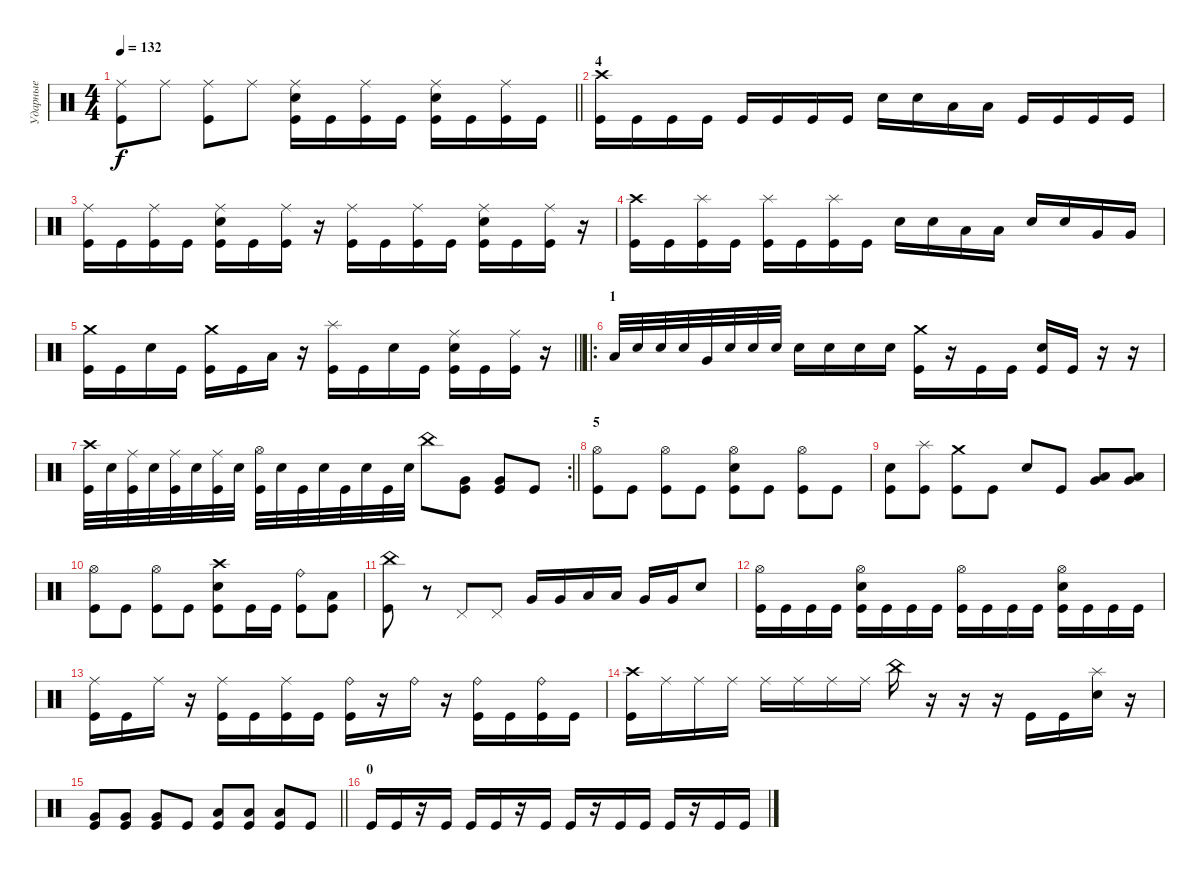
\track ("Ударные" "Ударные") {instrument percussion}
\staff {score}
\articulation defaults
\ts (4 4)
\tempo 132
\clef neutral
\barLineRight lightlight
\ks c
("Ride (middle)" "Kick (hit)").8{dy f} "Ride (middle)".8 ("Ride (middle)" "Kick (hit)").8 "Ride (middle)".8 ("Ride (middle)" "Electric Snare (hit)" "Kick (hit)").16 "Kick (hit)".16 ("Ride (middle)" "Kick (hit)").16 "Kick (hit)".16 ("Ride (middle)" "Electric Snare (hit)" "Kick (hit)").16 "Kick (hit)".16 ("Ride (middle)" "Kick (hit)").16 "Kick (hit)".16 |
\section ("" "4")
("Crash high (hit)" "Kick (hit)").16 "Kick (hit)".16 "Kick (hit)".16 "Kick (hit)".16 "Kick (hit)".16 "Kick (hit)".16 "Kick (hit)".16 "Kick (hit)".16 "Electric Snare (hit)".16 "Electric Snare (hit)".16 "Low Tom (hit)".16 "Low Tom (hit)".16 "Kick (hit)".16 "Kick (hit)".16 "Kick (hit)".16 "Kick (hit)".16 |
("Ride (middle)" "Kick (hit)").16 "Kick (hit)".16 ("Ride (middle)" "Kick (hit)").16 "Kick (hit)".16 ("Ride (middle)" "Electric Snare (hit)" "Kick (hit)").16 "Kick (hit)".16 ("Ride (middle)" "Kick (hit)").16 r.16 ("Ride (middle)" "Kick (hit)").16 "Kick (hit)".16 ("Ride (middle)" "Kick (hit)").16 "Kick (hit)".16 ("Ride (middle)" "Electric Snare (hit)" "Kick (hit)").16 "Kick (hit)".16 ("Ride (middle)" "Kick (hit)").16 r.16 |
("Crash high (hit)" "Kick (hit)").16 "Kick (hit)".16 ("Splash (hit)" "Kick (hit)").16 "Kick (hit)".16 ("Splash (hit)" "Kick (hit)").16 "Kick (hit)".16 ("Splash (hit)" "Kick (hit)").16 "Kick (hit)".16 "Electric Snare (hit)".16 "Electric Snare (hit)".16 "Low Tom (hit)".16 "Low Tom (hit)".16 "Electric Snare (hit)".16 "Electric Snare (hit)".16 "Very Low Tom (hit)".16 "Very Low Tom (hit)".16 |
\barLineRight lightlight
("Crash medium (hit)" "Kick (hit)").16 "Kick (hit)".16 "Electric Snare (hit)".16 "Kick (hit)".16 ("Crash medium (hit)" "Kick (hit)").16 "Kick (hit)".16 "Low Tom (hit)".16 r.16 ("Splash (hit)" "Kick (hit)").16 "Kick (hit)".16 "Electric Snare (hit)".16 "Kick (hit)".16 ("Ride (middle)" "Electric Snare (hit)" "Kick (hit)").16 "Kick (hit)".16 ("Ride (middle)" "Kick (hit)").16 r.16 |
\ro
\section ("" "1")
"Low Tom (hit)".32 "Electric Snare (hit)".32 "Electric Snare (hit)".32 "Electric Snare (hit)".32 "Very Low Tom (hit)".32 "Electric Snare (hit)".32 "Electric Snare (hit)".32 "Electric Snare (hit)".32 "Electric Snare (hit)".16 "Electric Snare (hit)".16 "Electric Snare (hit)".16 "Electric Snare (hit)".16 ("Crash medium (hit)" "Kick (hit)").16 r.16 "Kick (hit)".16 "Kick (hit)".16 ("Electric Snare (hit)" "Kick (hit)").16 "Kick (hit)".16 r.16 r.16 |
\rc 2
\barLineRight lightlight
("Crash high (hit)" "Kick (hit)").32 "Electric Snare (hit)".32 ("Ride (middle)" "Kick (hit)").32 "Electric Snare (hit)".32 ("Ride (middle)" "Kick (hit)").32 "Electric Snare (hit)".32 ("Ride (middle)" "Kick (hit)").32 "Electric Snare (hit)".32 ("Hi-Hat (open)" "Kick (hit)").32 "Electric Snare (hit)".32 "Kick (hit)".32 "Electric Snare (hit)".32 "Kick (hit)".32 "Electric Snare (hit)".32 "Kick (hit)".32 "Electric Snare (hit)".32 "China (hit)".8 ("Very Low Tom (hit)" "Kick (hit)").8 ("Very Low Tom (hit)" "Kick (hit)").8 "Kick (hit)".8 |
\section ("" "5")
("Hi-Hat (open)" "Kick (hit)").8 "Kick (hit)".8 ("Hi-Hat (open)" "Kick (hit)").8 "Kick (hit)".8 ("Hi-Hat (open)" "Electric Snare (hit)" "Kick (hit)").8 "Kick (hit)".8 ("Hi-Hat (open)" "Kick (hit)").8 "Kick (hit)".8 |
("Electric Snare (hit)" "Kick (hit)").8 ("Splash (hit)" "Kick (hit)").8 ("Crash medium (hit)" "Kick (hit)").8 "Kick (hit)".8 "Electric Snare (hit)".8 "Kick (hit)".8 ("Very Low Tom (hit)" "Low Floor Tom (hit)").8 ("Very Low Tom (hit)" "Low Floor Tom (hit)").8 |
("Hi-Hat (open)" "Kick (hit)").8 "Kick (hit)".8 ("Hi-Hat (open)" "Kick (hit)").8 "Kick (hit)".8 ("Crash high (hit)" "Electric Snare (hit)" "Kick (hit)").8 "Kick (hit)".16 "Kick (hit)".16 ("Ride (bell)" "Kick (hit)").8 ("Low Tom (hit)" "Kick (hit)").8 |
("China (hit)" "Kick (hit)").8 r.8 "Pedal Hi-Hat (hit)".8 "Pedal Hi-Hat (hit)".8 "Very Low Tom (hit)".16 "Very Low Tom (hit)".16 "Low Tom (hit)".16 "Low Tom (hit)".16 "Very Low Tom (hit)".16 "Very Low Tom (hit)".16 "Electric Snare (hit)".8 |
("Hi-Hat (open)" "Kick (hit)").16 "Kick (hit)".16 "Kick (hit)".16 "Kick (hit)".16 ("Hi-Hat (open)" "Electric Snare (hit)" "Kick (hit)").16 "Kick (hit)".16 "Kick (hit)".16 "Kick (hit)".16 ("Hi-Hat (open)" "Kick (hit)").16 "Kick (hit)".16 "Kick (hit)".16 "Kick (hit)".16 ("Hi-Hat (open)" "Electric Snare (hit)" "Kick (hit)").16 "Kick (hit)".16 "Kick (hit)".16 "Kick (hit)".16 |
("Ride (middle)" "Kick (hit)").16 "Kick (hit)".16 "Ride (middle)".16 r.16 ("Ride (middle)" "Kick (hit)").16 "Kick (hit)".16 ("Ride (middle)" "Kick (hit)").16 "Kick (hit)".16 ("Ride (bell)" "Kick (hit)").16 r.16 "Ride (bell)".16 r.16 ("Ride (bell)" "Kick (hit)").16 "Kick (hit)".16 ("Ride (bell)" "Kick (hit)").16 "Kick (hit)".16 |
("Crash high (hit)" "Kick (hit)").16 "Ride (middle)".16 "Ride (middle)".16 "Ride (middle)".16 "Ride (middle)".16 "Ride (middle)".16 "Ride (middle)".16 "Ride (middle)".16 "China (hit)".16 r.16 r.16 r.16 "Kick (hit)".16 "Kick (hit)".16 ("Splash (hit)" "Electric Snare (hit)").16 r.16 |
\barLineRight lightlight
("Very Low Tom (hit)" "Kick (hit)").8 ("Very Low Tom (hit)" "Kick (hit)").8 ("Very Low Tom (hit)" "Kick (hit)").8 "Kick (hit)".8 ("Low Floor Tom (hit)" "Kick (hit)").8 ("Low Floor Tom (hit)" "Kick (hit)").8 ("Low Floor Tom (hit)" "Kick (hit)").8 "Kick (hit)".8 |
\section ("" "0")
"Kick (hit)".16 "Kick (hit)".16 r.16 "Kick (hit)".16 "Kick (hit)".16 "Kick (hit)".16 r.16 "Kick (hit)".16 "Kick (hit)".16 r.16 "Kick (hit)".16 "Kick (hit)".16 "Kick (hit)".16 r.16 "Kick (hit)".16 "Kick (hit)".16
